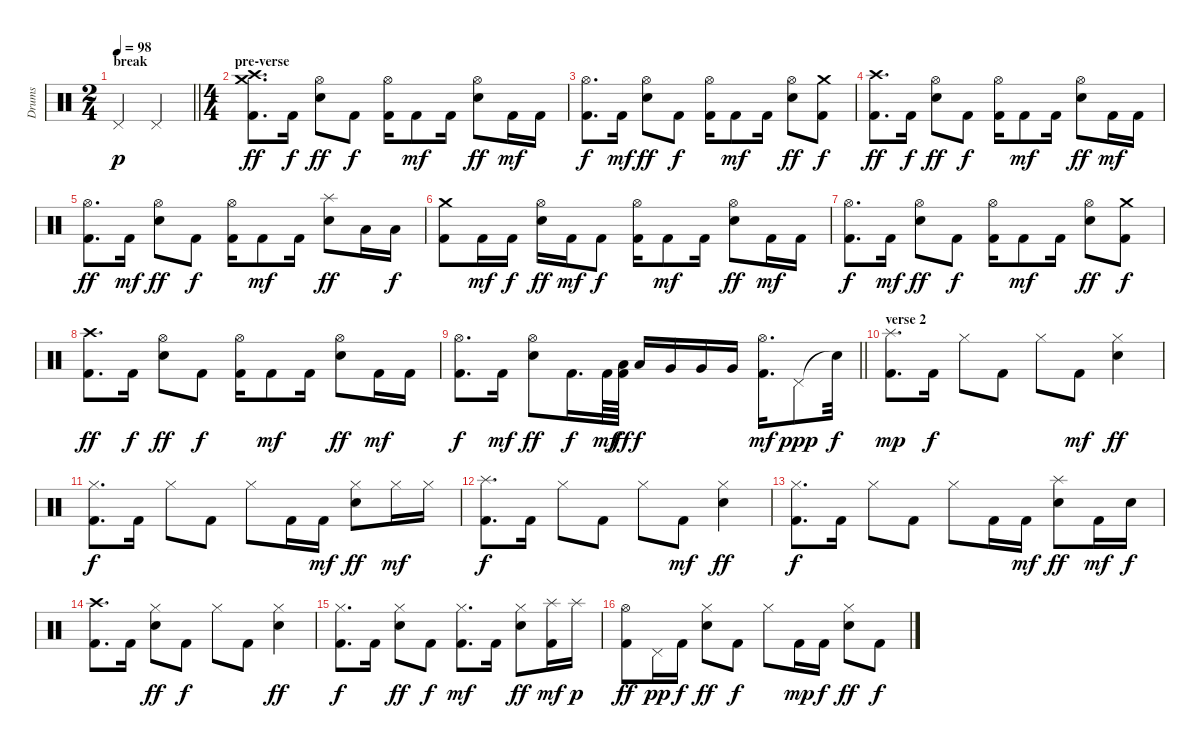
\track ("Drums" "Drums") {instrument percussion}
\staff {score}
\articulation defaults
\ts (2 4)
\section ("" "break")
\tempo 98
\clef neutral
\barLineRight lightlight
\ks c "Pedal Hi-Hat (hit)".4{dy p} "Pedal Hi-Hat (hit)".4
|
\ts (4 4)
\section ("" "pre-verse")
("Crash medium (hit)" "Crash high (hit)" "Kick (hit) 2").8{d dy ff} "Kick (hit) 2".16{dy f} ("Hi-Hat (open)" "Electric Snare (hit)").8{dy ff} "Kick (hit) 2".8{dy f} ("Hi-Hat (open)" "Kick (hit) 2").16 "Kick (hit) 2".8{dy mf} "Kick (hit) 2".16 ("Hi-Hat (open)" "Electric Snare (hit)").8{dy ff} "Kick (hit) 2".16{dy mf} "Kick (hit) 2".16 |
("Hi-Hat (open)" "Kick (hit) 2").8{d dy f} "Kick (hit) 2".16{dy mf} ("Hi-Hat (open)" "Electric Snare (hit)").8{dy ff} "Kick (hit) 2".8{dy f} ("Hi-Hat (open)" "Kick (hit) 2").16 "Kick (hit) 2".8{dy mf} "Kick (hit) 2".16 ("Hi-Hat (open)" "Electric Snare (hit)").8{dy ff} ("Crash medium (hit)" "Kick (hit) 2").8{dy f} |
("Crash high (hit)" "Kick (hit) 2").8{d dy ff} "Kick (hit) 2".16{dy f} ("Hi-Hat (open)" "Electric Snare (hit)").8{dy ff} "Kick (hit) 2".8{dy f} ("Hi-Hat (open)" "Kick (hit) 2").16 "Kick (hit) 2".8{dy mf} "Kick (hit) 2".16 ("Hi-Hat (open)" "Electric Snare (hit)").8{dy ff} "Kick (hit) 2".16{dy mf} "Kick (hit) 2".16 |
("Hi-Hat (open)" "Kick (hit) 2").8{d dy ff} "Kick (hit) 2".16{dy mf} ("Hi-Hat (open)" "Electric Snare (hit)").8{dy ff} "Kick (hit) 2".8{dy f} ("Hi-Hat (open)" "Kick (hit) 2").16 "Kick (hit) 2".8{dy mf} "Kick (hit) 2".16 ("Splash (hit)" "Electric Snare (hit)").8{dy ff} "Low Tom (hit)".16 "Low Tom (hit)".16{dy f} |
("Crash medium (hit)" "Kick (hit) 2").8 "Kick (hit) 2".16{dy mf} "Kick (hit) 2".16{dy f} ("Hi-Hat (open)" "Electric Snare (hit)").16{dy ff} "Kick (hit) 2".16{dy mf} "Kick (hit) 2".8{dy f} ("Hi-Hat (open)" "Kick (hit) 2").16 "Kick (hit) 2".8{dy mf} "Kick (hit) 2".16 ("Hi-Hat (open)" "Electric Snare (hit)").8{dy ff} "Kick (hit) 2".16{dy mf} "Kick (hit) 2".16 |
("Hi-Hat (open)" "Kick (hit) 2").8{d dy f} "Kick (hit) 2".16{dy mf} ("Hi-Hat (open)" "Electric Snare (hit)").8{dy ff} "Kick (hit) 2".8{dy f} ("Hi-Hat (open)" "Kick (hit) 2").16 "Kick (hit) 2".8{dy mf} "Kick (hit) 2".16 ("Hi-Hat (open)" "Electric Snare (hit)").8{dy ff} ("Crash medium (hit)" "Kick (hit) 2").8{dy f} |
("Crash high (hit)" "Kick (hit) 2").8{d dy ff} "Kick (hit) 2".16{dy f} ("Hi-Hat (open)" "Electric Snare (hit)").8{dy ff} "Kick (hit) 2".8{dy f} ("Hi-Hat (open)" "Kick (hit) 2").16 "Kick (hit) 2".8{dy mf} "Kick (hit) 2".16 ("Hi-Hat (open)" "Electric Snare (hit)").8{dy ff} "Kick (hit) 2".16{dy mf} "Kick (hit) 2".16 |
\barLineRight lightlight
("Hi-Hat (open)" "Kick (hit) 2").8{d dy f} "Kick (hit) 2".16{dy mf} ("Hi-Hat (open)" "Electric Snare (hit)").8{dy ff} "Kick (hit) 2".16{d dy f} "Kick (hit) 2".64{dy mf} ("Low Tom (hit)" "Kick (hit) 2").64{dy ff} "Low Tom (hit)".16{dy f} "Very Low Tom (hit)".16 "Very Low Tom (hit)".16 "Very Low Tom (hit)".16 ("Hi-Hat (open)" "Kick (hit) 2").16{d dy mf} "Pedal Hi-Hat (hit)".8{dy ppp} "Snare (hit)"{t}.32{dy f} |
\section ("" "verse 2")
("Splash (hit)" "Kick (hit) 2").8{d dy mp} "Kick (hit) 2".16{dy f} "Hi-Hat (closed)".8 "Kick (hit) 2".8 "Hi-Hat (closed)".8 "Kick (hit) 2".8{dy mf} ("Hi-Hat (closed)" "Electric Snare (hit)").4{dy ff} |
("Hi-Hat (closed)" "Kick (hit) 2").8{d dy f} "Kick (hit) 2".16 "Hi-Hat (closed)".8 "Kick (hit) 2".8 "Hi-Hat (closed)".8 "Kick (hit) 2".16 "Kick (hit) 2".16{dy mf} ("Hi-Hat (closed)" "Electric Snare (hit)").8{dy ff} "Hi-Hat (closed)".16{dy mf} "Hi-Hat (closed)".16 |
("Splash (hit)" "Kick (hit) 2").8{d dy f} "Kick (hit) 2".16 "Hi-Hat (closed)".8 "Kick (hit) 2".8 "Hi-Hat (closed)".8 "Kick (hit) 2".8{dy mf} ("Hi-Hat (closed)" "Electric Snare (hit)").4{dy ff} |
("Hi-Hat (closed)" "Kick (hit) 2").8{d dy f} "Kick (hit) 2".16 "Hi-Hat (closed)".8 "Kick (hit) 2".8 "Hi-Hat (closed)".8 "Kick (hit) 2".16 "Kick (hit) 2".16{dy mf} ("Splash (hit)" "Electric Snare (hit)").8{dy ff} "Kick (hit) 2".16{dy mf} "Electric Snare (hit)".16{dy f} |
("Crash high (hit)" "Kick (hit) 2").8{d} "Kick (hit) 2".16 ("Hi-Hat (closed)" "Electric Snare (hit)").8{dy ff} "Kick (hit) 2".8{dy f} "Hi-Hat (closed)".8 "Kick (hit) 2".8 ("Hi-Hat (closed)" "Electric Snare (hit)").4{dy ff} |
("Hi-Hat (closed)" "Kick (hit) 2").8{d dy f} "Kick (hit) 2".16 ("Hi-Hat (closed)" "Electric Snare (hit)").8{dy ff} "Kick (hit) 2".8{dy f} ("Hi-Hat (closed)" "Kick (hit) 2").8{d dy mf} "Kick (hit) 2".16 ("Hi-Hat (closed)" "Electric Snare (hit)").8{dy ff} ("Splash (hit)" "Kick (hit) 2").16{dy mf} "Splash (hit)".16{dy p} |
("Hi-Hat (open)" "Kick (hit) 2").8{dy ff} "Pedal Hi-Hat (hit)".16{dy pp} "Kick (hit) 2".16{dy f} ("Hi-Hat (closed)" "Electric Snare (hit)").8{dy ff} "Kick (hit) 2".8{dy f} "Hi-Hat (closed)".8 "Kick (hit) 2".16{dy mp} "Kick (hit) 2".16{dy f} ("Hi-Hat (closed)" "Electric Snare (hit)").8{dy ff} "Kick (hit) 2".8{dy f}
